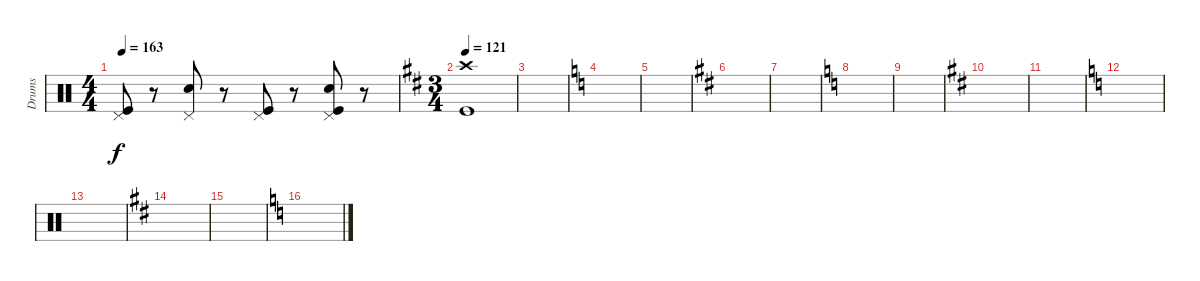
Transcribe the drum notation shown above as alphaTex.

\track ("Drums" "Drums") {instrument percussion}
\staff {score}
\articulation defaults
\ts (4 4)
\tempo 163
\clef neutral
\ks c
("Pedal Hi-Hat (hit)" "Kick (hit)").8{dy f} r.8 ("Pedal Hi-Hat (hit)" "Snare (hit) 2").8 r.8 ("Pedal Hi-Hat (hit)" "Kick (hit)").8 r.8 ("Pedal Hi-Hat (hit)" "Snare (hit) 2" "Kick (hit)").8 r.8 |
\ts (3 4)
\tempo 121
\ks d
("Crash high (hit)" "Kick (hit)").1 |
|
\ks c
|
|
\ks d
|
|
\ks c
|
|
\ks d
|
|
\ks c
|
|
\ks d
|
|
\ks c
